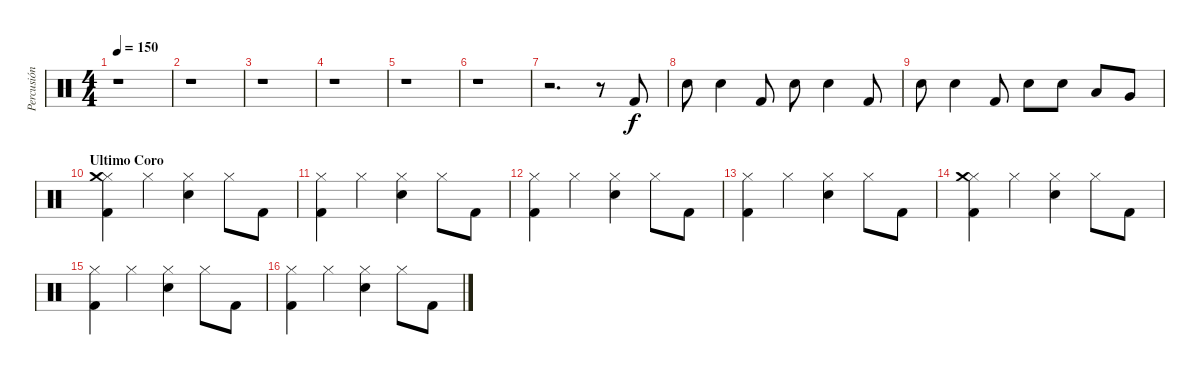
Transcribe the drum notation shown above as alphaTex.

\track ("Percusión" "Percusión") {instrument percussion}
\staff {score}
\articulation defaults
\ts (4 4)
\tempo 150
\clef neutral
\ks c
r.1{dy f} |
r.1 |
r.1 |
r.1 |
r.1 |
r.1 |
r.2{d} r.8 "Kick (hit) 2".8 |
"Snare (hit) 2".8 "Snare (hit) 2".4 "Kick (hit) 2".8 "Snare (hit) 2".8 "Snare (hit) 2".4 "Kick (hit) 2".8 |
"Snare (hit) 2".8 "Snare (hit) 2".4 "Kick (hit) 2".8 "Snare (hit) 2".8 "Snare (hit) 2".8 "Low Tom (hit)".8 "Very Low Tom (hit)".8 |
\section ("" "Ultimo Coro")
("Hi-Hat (closed)" "Crash medium (hit)" "Kick (hit) 2").4 "Hi-Hat (closed)".4 ("Hi-Hat (closed)" "Snare (hit) 2").4 "Hi-Hat (closed)".8 "Kick (hit) 2".8 |
("Hi-Hat (closed)" "Kick (hit) 2").4 "Hi-Hat (closed)".4 ("Hi-Hat (closed)" "Snare (hit) 2").4 "Hi-Hat (closed)".8 "Kick (hit) 2".8 |
("Hi-Hat (closed)" "Kick (hit) 2").4 "Hi-Hat (closed)".4 ("Hi-Hat (closed)" "Snare (hit) 2").4 "Hi-Hat (closed)".8 "Kick (hit) 2".8 |
("Hi-Hat (closed)" "Kick (hit) 2").4 "Hi-Hat (closed)".4 ("Hi-Hat (closed)" "Snare (hit) 2").4 "Hi-Hat (closed)".8 "Kick (hit) 2".8 |
("Hi-Hat (closed)" "Crash medium (hit)" "Kick (hit) 2").4 "Hi-Hat (closed)".4 ("Hi-Hat (closed)" "Snare (hit) 2").4 "Hi-Hat (closed)".8 "Kick (hit) 2".8 |
("Hi-Hat (closed)" "Kick (hit) 2").4 "Hi-Hat (closed)".4 ("Hi-Hat (closed)" "Snare (hit) 2").4 "Hi-Hat (closed)".8 "Kick (hit) 2".8 |
("Hi-Hat (closed)" "Kick (hit) 2").4 "Hi-Hat (closed)".4 ("Hi-Hat (closed)" "Snare (hit) 2").4 "Hi-Hat (closed)".8 "Kick (hit) 2".8
